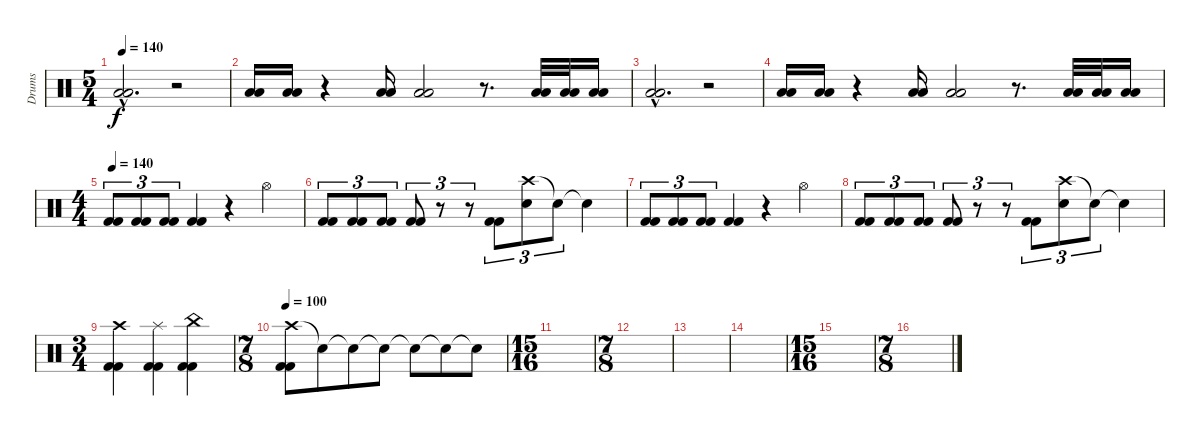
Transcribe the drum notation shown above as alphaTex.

\track ("Drums" "Drums") {instrument percussion}
\staff {score}
\articulation defaults
\ts (5 4)
\tempo 140
\clef neutral
\ks c
("Low Floor Tom (hit)"{hac} "Low Floor Tom (hit)"{hac}).2{d dy f} r.2 |
("Low Floor Tom (hit)" "Low Floor Tom (hit)").16 ("Low Floor Tom (hit)" "Low Floor Tom (hit)").16 r.4 ("Low Floor Tom (hit)" "Low Floor Tom (hit)").16 ("Low Floor Tom (hit)" "Low Floor Tom (hit)").2 r.8{d} ("Low Floor Tom (hit)" "Low Floor Tom (hit)").32 ("Low Floor Tom (hit)" "Low Floor Tom (hit)").32 ("Low Floor Tom (hit)" "Low Floor Tom (hit)").16 |
("Low Floor Tom (hit)"{hac} "Low Floor Tom (hit)"{hac}).2{d} r.2 |
("Low Floor Tom (hit)" "Low Floor Tom (hit)").16 ("Low Floor Tom (hit)" "Low Floor Tom (hit)").16 r.4 ("Low Floor Tom (hit)" "Low Floor Tom (hit)").16 ("Low Floor Tom (hit)" "Low Floor Tom (hit)").2 r.8{d} ("Low Floor Tom (hit)" "Low Floor Tom (hit)").32 ("Low Floor Tom (hit)" "Low Floor Tom (hit)").32 ("Low Floor Tom (hit)" "Low Floor Tom (hit)").16 |
\ts (4 4)
\tempo 140
("Kick (hit) 2" "Kick (hit) 2").8{tu (3 2)} ("Kick (hit) 2" "Kick (hit) 2").8{tu (3 2)} ("Kick (hit) 2" "Kick (hit) 2").8{tu (3 2)} ("Kick (hit) 2" "Kick (hit) 2").4 r.4 "Hi-Hat (open)".4 |
("Kick (hit) 2" "Kick (hit) 2").8{tu (3 2)} ("Kick (hit) 2" "Kick (hit) 2").8{tu (3 2)} ("Kick (hit) 2" "Kick (hit) 2").8{tu (3 2)} ("Kick (hit) 2" "Kick (hit) 2").8{tu (3 2)} r.8{tu (3 2)} r.8{tu (3 2)} ("Kick (hit) 2" "Kick (hit) 2").8{tu (3 2)} ("Crash high (hit)" "Snare (hit) 2").8{tu (3 2)} "Snare (hit)"{t}.8{tu (3 2)} "Snare (hit)"{t}.4 |
("Kick (hit) 2" "Kick (hit) 2").8{tu (3 2)} ("Kick (hit) 2" "Kick (hit) 2").8{tu (3 2)} ("Kick (hit) 2" "Kick (hit) 2").8{tu (3 2)} ("Kick (hit) 2" "Kick (hit) 2").4 r.4 "Hi-Hat (open)".4 |
("Kick (hit) 2" "Kick (hit) 2").8{tu (3 2)} ("Kick (hit) 2" "Kick (hit) 2").8{tu (3 2)} ("Kick (hit) 2" "Kick (hit) 2").8{tu (3 2)} ("Kick (hit) 2" "Kick (hit) 2").8{tu (3 2)} r.8{tu (3 2)} r.8{tu (3 2)} ("Kick (hit) 2" "Kick (hit) 2").8{tu (3 2)} ("Crash high (hit)" "Snare (hit) 2").8{tu (3 2)} "Snare (hit)"{t}.8{tu (3 2)} "Snare (hit)"{t}.4 |
\ts (3 4)
("Crash high (hit)" "Kick (hit) 2" "Kick (hit) 2").4 ("Splash (hit)" "Kick (hit) 2" "Kick (hit) 2").4 ("China (hit)" "Kick (hit) 2" "Kick (hit) 2").4 |
\ts (7 8)
\tempo 100
("Crash high (hit)" "Kick (hit) 2" "Kick (hit) 2").8 "Snare (hit)"{t}.8 "Snare (hit)"{t}.8 "Snare (hit)"{t}.8 "Snare (hit)"{t}.8 "Snare (hit)"{t}.8 "Snare (hit)"{t}.8 |
\ts (15 16)
|
\ts (7 8)
|
|
|
\ts (15 16)
|
\ts (7 8)
